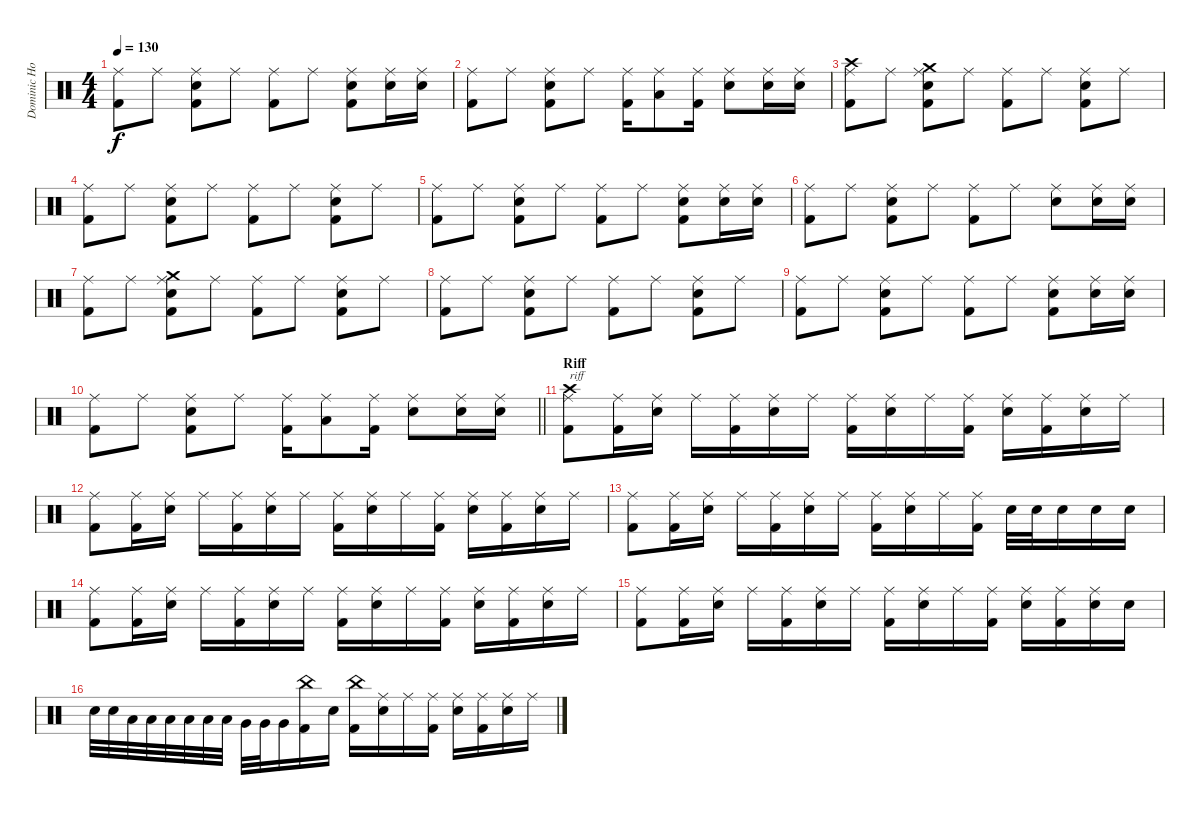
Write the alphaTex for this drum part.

\track ("Dominic Howard" "Dominic Ho") {instrument percussion}
\staff {score}
\articulation defaults
\ts (4 4)
\tempo 130
\clef neutral
\ks c
("Ride (middle)" "Kick (hit) 2").8{dy f} "Ride (middle)".8 ("Ride (middle)" "Kick (hit) 2" "Electric Snare (hit)").8 "Ride (middle)".8 ("Ride (middle)" "Kick (hit) 2").8 "Ride (middle)".8 ("Ride (middle)" "Kick (hit) 2" "Electric Snare (hit)").8 ("Ride (middle)" "Electric Snare (hit)").16 ("Ride (middle)" "Electric Snare (hit)").16 |
("Ride (middle)" "Kick (hit) 2").8 "Ride (middle)".8 ("Ride (middle)" "Kick (hit) 2" "Electric Snare (hit)").8 "Ride (middle)".8 ("Ride (middle)" "Kick (hit) 2").16 ("Ride (middle)" "Low Tom (hit)").8 ("Ride (middle)" "Kick (hit) 2").16 ("Ride (middle)" "Electric Snare (hit)").8 ("Ride (middle)" "Electric Snare (hit)").16 ("Ride (middle)" "Electric Snare (hit)").16 |
("Crash high (hit)" "Ride (middle)" "Kick (hit) 2").8 "Ride (middle)".8 ("Crash medium (hit)" "Ride (middle)" "Kick (hit) 2" "Electric Snare (hit)").8 "Ride (middle)".8 ("Ride (middle)" "Kick (hit) 2").8 "Ride (middle)".8 ("Ride (middle)" "Kick (hit) 2" "Electric Snare (hit)").8 "Ride (middle)".8 |
("Ride (middle)" "Kick (hit) 2").8 "Ride (middle)".8 ("Ride (middle)" "Kick (hit) 2" "Electric Snare (hit)").8 "Ride (middle)".8 ("Ride (middle)" "Kick (hit) 2").8 "Ride (middle)".8 ("Ride (middle)" "Kick (hit) 2" "Electric Snare (hit)").8 "Ride (middle)".8 |
("Ride (middle)" "Kick (hit) 2").8 "Ride (middle)".8 ("Ride (middle)" "Kick (hit) 2" "Electric Snare (hit)").8 "Ride (middle)".8 ("Ride (middle)" "Kick (hit) 2").8 "Ride (middle)".8 ("Ride (middle)" "Kick (hit) 2" "Electric Snare (hit)").8 ("Ride (middle)" "Electric Snare (hit)").16 ("Ride (middle)" "Electric Snare (hit)").16 |
("Ride (middle)" "Kick (hit) 2").8 "Ride (middle)".8 ("Ride (middle)" "Kick (hit) 2" "Electric Snare (hit)").8 "Ride (middle)".8 ("Ride (middle)" "Kick (hit) 2").8 "Ride (middle)".8 ("Ride (middle)" "Electric Snare (hit)").8 ("Ride (middle)" "Electric Snare (hit)").16 ("Ride (middle)" "Electric Snare (hit)").16 |
("Ride (middle)" "Kick (hit) 2").8 "Ride (middle)".8 ("Crash medium (hit)" "Ride (middle)" "Kick (hit) 2" "Electric Snare (hit)").8 "Ride (middle)".8 ("Ride (middle)" "Kick (hit) 2").8 "Ride (middle)".8 ("Ride (middle)" "Kick (hit) 2" "Electric Snare (hit)").8 "Ride (middle)".8 |
("Ride (middle)" "Kick (hit) 2").8 "Ride (middle)".8 ("Ride (middle)" "Kick (hit) 2" "Electric Snare (hit)").8 "Ride (middle)".8 ("Ride (middle)" "Kick (hit) 2").8 "Ride (middle)".8 ("Ride (middle)" "Kick (hit) 2" "Electric Snare (hit)").8 "Ride (middle)".8 |
("Ride (middle)" "Kick (hit) 2").8 "Ride (middle)".8 ("Ride (middle)" "Kick (hit) 2" "Electric Snare (hit)").8 "Ride (middle)".8 ("Ride (middle)" "Kick (hit) 2").8 "Ride (middle)".8 ("Ride (middle)" "Kick (hit) 2" "Electric Snare (hit)").8 ("Ride (middle)" "Electric Snare (hit)").16 ("Ride (middle)" "Electric Snare (hit)").16 |
\barLineRight lightlight
("Ride (middle)" "Kick (hit) 2").8 "Ride (middle)".8 ("Ride (middle)" "Kick (hit) 2" "Electric Snare (hit)").8 "Ride (middle)".8 ("Ride (middle)" "Kick (hit) 2").16 ("Ride (middle)" "Low Tom (hit)").8 ("Ride (middle)" "Kick (hit) 2").16 ("Ride (middle)" "Electric Snare (hit)").8 ("Ride (middle)" "Electric Snare (hit)").16 ("Ride (middle)" "Electric Snare (hit)").16 |
\section ("" "Riff")
("Crash high (hit)" "Ride (middle)" "Kick (hit) 2").8{txt "riff"} ("Ride (middle)" "Kick (hit) 2").16 ("Ride (middle)" "Electric Snare (hit)").16 "Ride (middle)".16 ("Ride (middle)" "Kick (hit) 2").16 ("Ride (middle)" "Electric Snare (hit)").16 "Ride (middle)".16 ("Ride (middle)" "Kick (hit) 2").16 ("Ride (middle)" "Electric Snare (hit)").16 "Ride (middle)".16 ("Ride (middle)" "Kick (hit) 2").16 ("Ride (middle)" "Electric Snare (hit)").16 ("Ride (middle)" "Kick (hit) 2").16 ("Ride (middle)" "Electric Snare (hit)").16 "Ride (middle)".16 |
("Ride (middle)" "Kick (hit) 2").8 ("Ride (middle)" "Kick (hit) 2").16 ("Ride (middle)" "Electric Snare (hit)").16 "Ride (middle)".16 ("Ride (middle)" "Kick (hit) 2").16 ("Ride (middle)" "Electric Snare (hit)").16 "Ride (middle)".16 ("Ride (middle)" "Kick (hit) 2").16 ("Ride (middle)" "Electric Snare (hit)").16 "Ride (middle)".16 ("Ride (middle)" "Kick (hit) 2").16 ("Ride (middle)" "Electric Snare (hit)").16 ("Ride (middle)" "Kick (hit) 2").16 ("Ride (middle)" "Electric Snare (hit)").16 "Ride (middle)".16 |
("Ride (middle)" "Kick (hit) 2").8 ("Ride (middle)" "Kick (hit) 2").16 ("Ride (middle)" "Electric Snare (hit)").16 "Ride (middle)".16 ("Ride (middle)" "Kick (hit) 2").16 ("Ride (middle)" "Electric Snare (hit)").16 "Ride (middle)".16 ("Ride (middle)" "Kick (hit) 2").16 ("Ride (middle)" "Electric Snare (hit)").16 "Ride (middle)".16 ("Ride (middle)" "Kick (hit) 2").16 "Electric Snare (hit)".32 "Electric Snare (hit)".32 "Electric Snare (hit)".16 "Electric Snare (hit)".16 "Electric Snare (hit)".16 |
("Ride (middle)" "Kick (hit) 2").8 ("Ride (middle)" "Kick (hit) 2").16 ("Ride (middle)" "Electric Snare (hit)").16 "Ride (middle)".16 ("Ride (middle)" "Kick (hit) 2").16 ("Ride (middle)" "Electric Snare (hit)").16 "Ride (middle)".16 ("Ride (middle)" "Kick (hit) 2").16 ("Ride (middle)" "Electric Snare (hit)").16 "Ride (middle)".16 ("Ride (middle)" "Kick (hit) 2").16 ("Ride (middle)" "Electric Snare (hit)").16 ("Ride (middle)" "Kick (hit) 2").16 ("Ride (middle)" "Electric Snare (hit)").16 "Ride (middle)".16 |
("Ride (middle)" "Kick (hit) 2").8 ("Ride (middle)" "Kick (hit) 2").16 ("Ride (middle)" "Electric Snare (hit)").16 "Ride (middle)".16 ("Ride (middle)" "Kick (hit) 2").16 ("Ride (middle)" "Electric Snare (hit)").16 "Ride (middle)".16 ("Ride (middle)" "Kick (hit) 2").16 ("Ride (middle)" "Electric Snare (hit)").16 "Ride (middle)".16 ("Ride (middle)" "Kick (hit) 2").16 ("Ride (middle)" "Electric Snare (hit)").16 ("Ride (middle)" "Kick (hit) 2").16 ("Ride (middle)" "Electric Snare (hit)").16 "Electric Snare (hit)".16 |
"Electric Snare (hit)".32 "Electric Snare (hit)".32 "Low Tom (hit)".32 "Low Tom (hit)".32 "Low Tom (hit)".32 "Low Tom (hit)".32 "Low Floor Tom (hit)".32 "Low Floor Tom (hit)".32 "Very Low Tom (hit)".32 "Very Low Tom (hit)".32 "Very Low Tom (hit)".16 ("Kick (hit) 2" "China (hit)").16 "Electric Snare (hit)".16 ("China (hit)" "Kick (hit) 2").16 ("Ride (middle)" "Electric Snare (hit)").16 "Ride (middle)".16 ("Ride (middle)" "Kick (hit) 2").16 ("Ride (middle)" "Electric Snare (hit)").16 ("Ride (middle)" "Kick (hit) 2").16 ("Ride (middle)" "Electric Snare (hit)").16 "Ride (middle)".16
